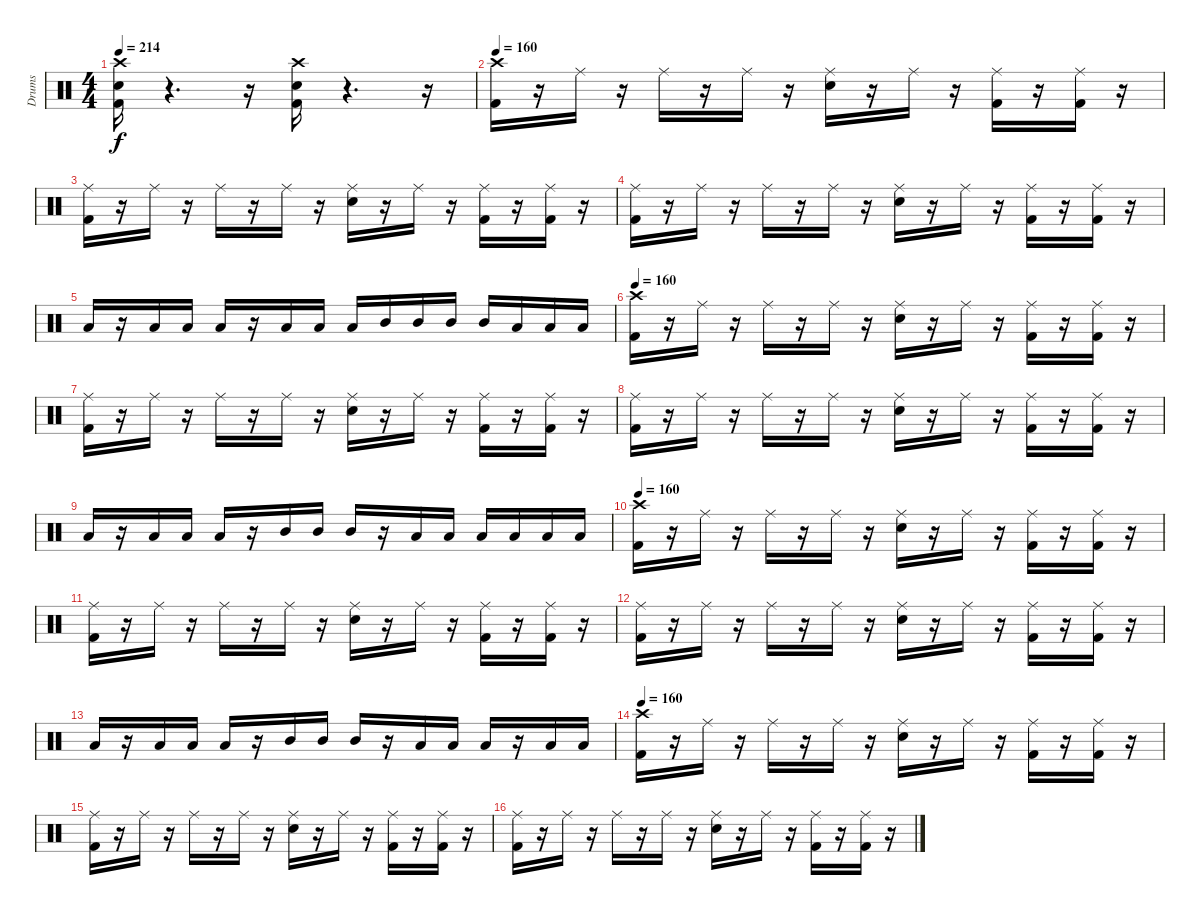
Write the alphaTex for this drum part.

\track ("Drums               " "Drums     ") {instrument percussion}
\staff {score}
\articulation defaults
\ts (4 4)
\tempo 214
\clef neutral
\ks c
("Kick (hit) 2" "Snare (hit) 2" "Crash high (hit)").16{dy f} r.4{d} r.16 ("Kick (hit) 2" "Snare (hit) 2" "Crash high (hit)").16 r.4{d} r.16 |
\tempo 160
("Kick (hit) 2" "Crash high (hit)").16 r.16 "Ride (middle)".16 r.16 "Ride (middle)".16 r.16 "Ride (middle)".16 r.16 ("Snare (hit) 2" "Ride (middle)").16 r.16 "Ride (middle)".16 r.16 ("Kick (hit) 2" "Ride (middle)").16 r.16 ("Kick (hit) 2" "Ride (middle)").16 r.16 |
("Kick (hit) 2" "Ride (middle)").16 r.16 "Ride (middle)".16 r.16 "Ride (middle)".16 r.16 "Ride (middle)".16 r.16 ("Snare (hit) 2" "Ride (middle)").16 r.16 "Ride (middle)".16 r.16 ("Kick (hit) 2" "Ride (middle)").16 r.16 ("Kick (hit) 2" "Ride (middle)").16 r.16 |
("Kick (hit) 2" "Ride (middle)").16 r.16 "Ride (middle)".16 r.16 "Ride (middle)".16 r.16 "Ride (middle)".16 r.16 ("Snare (hit) 2" "Ride (middle)").16 r.16 "Ride (middle)".16 r.16 ("Kick (hit) 2" "Ride (middle)").16 r.16 ("Kick (hit) 2" "Ride (middle)").16 r.16 |
"Low Floor Tom (hit)".16 r.16 "Low Floor Tom (hit)".16 "Low Floor Tom (hit)".16 "Low Floor Tom (hit)".16 r.16 "Low Tom (hit)".16 "Low Tom (hit)".16 "Low Tom (hit)".16 "Mid Tom (hit)".16 "Mid Tom (hit)".16 "Mid Tom (hit)".16 "Mid Tom (hit)".16 "Low Tom (hit)".16 "Low Tom (hit)".16 "Low Tom (hit)".16 |
\tempo 160
("Kick (hit) 2" "Crash high (hit)").16 r.16 "Ride (middle)".16 r.16 "Ride (middle)".16 r.16 "Ride (middle)".16 r.16 ("Snare (hit) 2" "Ride (middle)").16 r.16 "Ride (middle)".16 r.16 ("Kick (hit) 2" "Ride (middle)").16 r.16 ("Kick (hit) 2" "Ride (middle)").16 r.16 |
("Kick (hit) 2" "Ride (middle)").16 r.16 "Ride (middle)".16 r.16 "Ride (middle)".16 r.16 "Ride (middle)".16 r.16 ("Snare (hit) 2" "Ride (middle)").16 r.16 "Ride (middle)".16 r.16 ("Kick (hit) 2" "Ride (middle)").16 r.16 ("Kick (hit) 2" "Ride (middle)").16 r.16 |
("Kick (hit) 2" "Ride (middle)").16 r.16 "Ride (middle)".16 r.16 "Ride (middle)".16 r.16 "Ride (middle)".16 r.16 ("Snare (hit) 2" "Ride (middle)").16 r.16 "Ride (middle)".16 r.16 ("Kick (hit) 2" "Ride (middle)").16 r.16 ("Kick (hit) 2" "Ride (middle)").16 r.16 |
"Low Tom (hit)".16 r.16 "Low Tom (hit)".16 "Low Tom (hit)".16 "Low Tom (hit)".16 r.16 "Mid Tom (hit)".16 "Mid Tom (hit)".16 "Mid Tom (hit)".16 r.16 "Low Floor Tom (hit)".16 "Low Floor Tom (hit)".16 "Low Floor Tom (hit)".16 "Low Tom (hit)".16 "Low Tom (hit)".16 "Low Tom (hit)".16 |
\tempo 160
("Kick (hit) 2" "Crash high (hit)").16 r.16 "Ride (middle)".16 r.16 "Ride (middle)".16 r.16 "Ride (middle)".16 r.16 ("Snare (hit) 2" "Ride (middle)").16 r.16 "Ride (middle)".16 r.16 ("Kick (hit) 2" "Ride (middle)").16 r.16 ("Kick (hit) 2" "Ride (middle)").16 r.16 |
("Kick (hit) 2" "Ride (middle)").16 r.16 "Ride (middle)".16 r.16 "Ride (middle)".16 r.16 "Ride (middle)".16 r.16 ("Snare (hit) 2" "Ride (middle)").16 r.16 "Ride (middle)".16 r.16 ("Kick (hit) 2" "Ride (middle)").16 r.16 ("Kick (hit) 2" "Ride (middle)").16 r.16 |
("Kick (hit) 2" "Ride (middle)").16 r.16 "Ride (middle)".16 r.16 "Ride (middle)".16 r.16 "Ride (middle)".16 r.16 ("Snare (hit) 2" "Ride (middle)").16 r.16 "Ride (middle)".16 r.16 ("Kick (hit) 2" "Ride (middle)").16 r.16 ("Kick (hit) 2" "Ride (middle)").16 r.16 |
"Low Floor Tom (hit)".16 r.16 "Low Floor Tom (hit)".16 "Low Floor Tom (hit)".16 "Low Floor Tom (hit)".16 r.16 "Mid Tom (hit)".16 "Mid Tom (hit)".16 "Mid Tom (hit)".16 r.16 "Low Tom (hit)".16 "Low Tom (hit)".16 "Low Tom (hit)".16 r.16 "Low Tom (hit)".16 "Low Tom (hit)".16 |
\tempo 160
("Kick (hit) 2" "Crash high (hit)").16 r.16 "Ride (middle)".16 r.16 "Ride (middle)".16 r.16 "Ride (middle)".16 r.16 ("Snare (hit) 2" "Ride (middle)").16 r.16 "Ride (middle)".16 r.16 ("Kick (hit) 2" "Ride (middle)").16 r.16 ("Kick (hit) 2" "Ride (middle)").16 r.16 |
("Kick (hit) 2" "Ride (middle)").16 r.16 "Ride (middle)".16 r.16 "Ride (middle)".16 r.16 "Ride (middle)".16 r.16 ("Snare (hit) 2" "Ride (middle)").16 r.16 "Ride (middle)".16 r.16 ("Kick (hit) 2" "Ride (middle)").16 r.16 ("Kick (hit) 2" "Ride (middle)").16 r.16 |
("Kick (hit) 2" "Ride (middle)").16 r.16 "Ride (middle)".16 r.16 "Ride (middle)".16 r.16 "Ride (middle)".16 r.16 ("Snare (hit) 2" "Ride (middle)").16 r.16 "Ride (middle)".16 r.16 ("Kick (hit) 2" "Ride (middle)").16 r.16 ("Kick (hit) 2" "Ride (middle)").16 r.16
